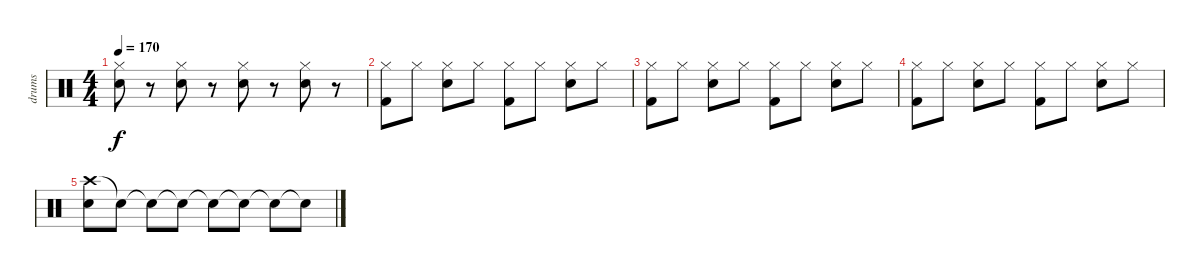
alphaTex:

\track ("drums" "drums") {instrument percussion}
\staff {score}
\articulation defaults
\ts (4 4)
\tempo 170
\clef neutral
\ks c
("Hi-Hat (closed)" "Snare (hit) 2").8{dy f} r.8 ("Hi-Hat (closed)" "Snare (hit) 2").8 r.8 ("Hi-Hat (closed)" "Snare (hit) 2").8 r.8 ("Hi-Hat (closed)" "Snare (hit) 2").8 r.8 |
("Hi-Hat (closed)" "Kick (hit) 2").8 "Hi-Hat (closed)".8 ("Hi-Hat (closed)" "Snare (hit) 2").8 "Hi-Hat (closed)".8 ("Hi-Hat (closed)" "Kick (hit) 2").8 "Hi-Hat (closed)".8 ("Hi-Hat (closed)" "Snare (hit) 2").8 "Hi-Hat (closed)".8 |
("Hi-Hat (closed)" "Kick (hit) 2").8 "Hi-Hat (closed)".8 ("Hi-Hat (closed)" "Snare (hit) 2").8 "Hi-Hat (closed)".8 ("Hi-Hat (closed)" "Kick (hit) 2").8 "Hi-Hat (closed)".8 ("Hi-Hat (closed)" "Snare (hit) 2").8 "Hi-Hat (closed)".8 |
("Hi-Hat (closed)" "Kick (hit) 2").8 "Hi-Hat (closed)".8 ("Hi-Hat (closed)" "Snare (hit) 2").8 "Hi-Hat (closed)".8 ("Hi-Hat (closed)" "Kick (hit) 2").8 "Hi-Hat (closed)".8 ("Hi-Hat (closed)" "Snare (hit) 2").8 "Hi-Hat (closed)".8 |
("Crash high (hit)" "Snare (hit) 2").8{volume 0} "Snare (hit)"{t}.8 "Snare (hit)"{t}.8 "Snare (hit)"{t}.8 "Snare (hit)"{t}.8 "Snare (hit)"{t}.8 "Snare (hit)"{t}.8 "Snare (hit)"{t}.8
